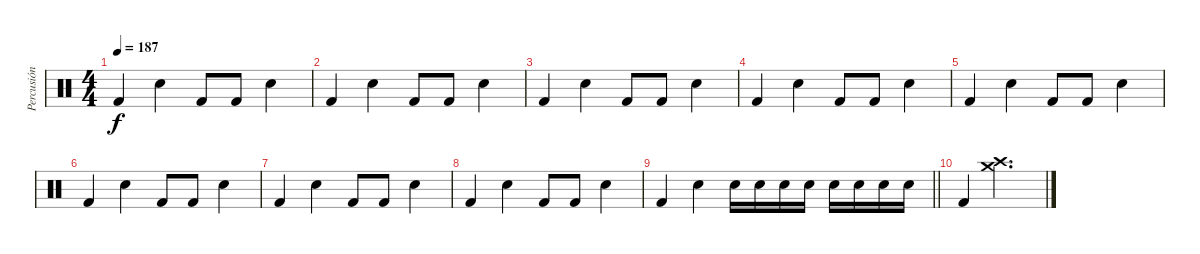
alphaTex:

\track ("Percusión" "Percusión") {instrument percussion}
\staff {score}
\articulation defaults
\ts (4 4)
\tempo 187
\clef neutral
\ks c "Kick (hit) 2".4{dy f} "Snare (hit) 2".4 "Kick (hit) 2".8 "Kick (hit) 2".8 "Snare (hit) 2".4
|
"Kick (hit) 2".4 "Snare (hit) 2".4 "Kick (hit) 2".8 "Kick (hit) 2".8 "Snare (hit) 2".4 |
"Kick (hit) 2".4 "Snare (hit) 2".4 "Kick (hit) 2".8 "Kick (hit) 2".8 "Snare (hit) 2".4 |
"Kick (hit) 2".4 "Snare (hit) 2".4 "Kick (hit) 2".8 "Kick (hit) 2".8 "Snare (hit) 2".4 |
"Kick (hit) 2".4 "Snare (hit) 2".4 "Kick (hit) 2".8 "Kick (hit) 2".8 "Snare (hit) 2".4 |
"Kick (hit) 2".4 "Snare (hit) 2".4 "Kick (hit) 2".8 "Kick (hit) 2".8 "Snare (hit) 2".4 |
"Kick (hit) 2".4 "Snare (hit) 2".4 "Kick (hit) 2".8 "Kick (hit) 2".8 "Snare (hit) 2".4 |
"Kick (hit) 2".4 "Snare (hit) 2".4 "Kick (hit) 2".8 "Kick (hit) 2".8 "Snare (hit) 2".4 |
\barLineRight lightlight "Kick (hit) 2".4 "Snare (hit) 2".4 "Electric Snare (hit)".16 "Electric Snare (hit)".16 "Electric Snare (hit)".16 "Electric Snare (hit)".16 "Electric Snare (hit)".16 "Electric Snare (hit)".16 "Electric Snare (hit)".16 "Electric Snare (hit)".16
|
"Kick (hit) 2".4 ("Crash medium (hit)" "Crash high (hit)").2{d}
